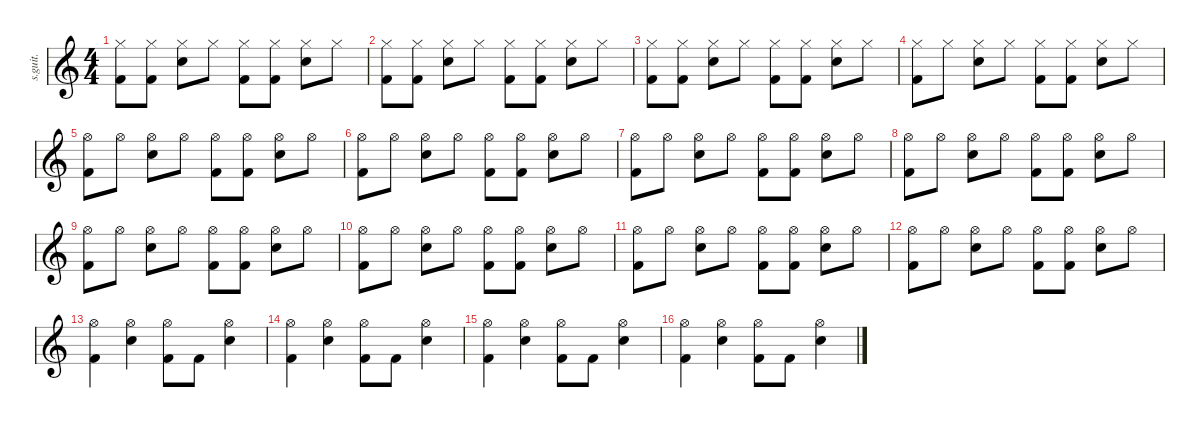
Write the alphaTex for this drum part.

\defaultSystemsLayout 4
\hideDynamics
\bracketExtendMode nobrackets
\track ("" "s.guit.") {instrument percussion}
\staff {score}
\articulation defaults
\ts (4 4)
\tempo (180 hide)
\clef g2
\ks c
("Kick (hit) 2" "Hi-Hat (closed)").8{dy f} ("Kick (hit) 2" "Hi-Hat (closed)").8 ("Snare (hit) 2" "Hi-Hat (closed)").8 "Hi-Hat (closed)".8 ("Kick (hit) 2" "Hi-Hat (closed)").8 ("Kick (hit) 2" "Hi-Hat (closed)").8 ("Snare (hit) 2" "Hi-Hat (closed)").8 "Hi-Hat (closed)".8 |
("Kick (hit) 2" "Hi-Hat (closed)").8 ("Kick (hit) 2" "Hi-Hat (closed)").8 ("Snare (hit) 2" "Hi-Hat (closed)").8 "Hi-Hat (closed)".8 ("Kick (hit) 2" "Hi-Hat (closed)").8 ("Kick (hit) 2" "Hi-Hat (closed)").8 ("Snare (hit) 2" "Hi-Hat (closed)").8 "Hi-Hat (closed)".8 |
("Kick (hit) 2" "Hi-Hat (closed)").8 ("Kick (hit) 2" "Hi-Hat (closed)").8 ("Snare (hit) 2" "Hi-Hat (closed)").8 "Hi-Hat (closed)".8 ("Kick (hit) 2" "Hi-Hat (closed)").8 ("Kick (hit) 2" "Hi-Hat (closed)").8 ("Snare (hit) 2" "Hi-Hat (closed)").8 "Hi-Hat (closed)".8 |
("Kick (hit) 2" "Hi-Hat (closed)").8 "Hi-Hat (closed)".8 ("Snare (hit) 2" "Hi-Hat (closed)").8 "Hi-Hat (closed)".8 ("Kick (hit) 2" "Hi-Hat (closed)").8 ("Kick (hit) 2" "Hi-Hat (closed)").8 ("Snare (hit) 2" "Hi-Hat (closed)").8 "Hi-Hat (closed)".8 |
("Kick (hit) 2" "Hi-Hat (open)").8 "Hi-Hat (open)".8 ("Snare (hit) 2" "Hi-Hat (open)").8 "Hi-Hat (open)".8 ("Kick (hit) 2" "Hi-Hat (open)").8 ("Kick (hit) 2" "Hi-Hat (open)").8 ("Snare (hit) 2" "Hi-Hat (open)").8 "Hi-Hat (open)".8 |
("Kick (hit) 2" "Hi-Hat (open)").8 "Hi-Hat (open)".8 ("Snare (hit) 2" "Hi-Hat (open)").8 "Hi-Hat (open)".8 ("Kick (hit) 2" "Hi-Hat (open)").8 ("Kick (hit) 2" "Hi-Hat (open)").8 ("Snare (hit) 2" "Hi-Hat (open)").8 "Hi-Hat (open)".8 |
("Kick (hit) 2" "Hi-Hat (open)").8 "Hi-Hat (open)".8 ("Snare (hit) 2" "Hi-Hat (open)").8 "Hi-Hat (open)".8 ("Kick (hit) 2" "Hi-Hat (open)").8 ("Kick (hit) 2" "Hi-Hat (open)").8 ("Snare (hit) 2" "Hi-Hat (open)").8 "Hi-Hat (open)".8 |
("Kick (hit) 2" "Hi-Hat (open)").8 "Hi-Hat (open)".8 ("Snare (hit) 2" "Hi-Hat (open)").8 "Hi-Hat (open)".8 ("Kick (hit) 2" "Hi-Hat (open)").8 ("Kick (hit) 2" "Hi-Hat (open)").8 ("Snare (hit) 2" "Hi-Hat (open)").8 "Hi-Hat (open)".8 |
("Kick (hit) 2" "Hi-Hat (open)").8 "Hi-Hat (open)".8 ("Snare (hit) 2" "Hi-Hat (open)").8 "Hi-Hat (open)".8 ("Kick (hit) 2" "Hi-Hat (open)").8 ("Kick (hit) 2" "Hi-Hat (open)").8 ("Snare (hit) 2" "Hi-Hat (open)").8 "Hi-Hat (open)".8 |
("Kick (hit) 2" "Hi-Hat (open)").8 "Hi-Hat (open)".8 ("Snare (hit) 2" "Hi-Hat (open)").8 "Hi-Hat (open)".8 ("Kick (hit) 2" "Hi-Hat (open)").8 ("Kick (hit) 2" "Hi-Hat (open)").8 ("Snare (hit) 2" "Hi-Hat (open)").8 "Hi-Hat (open)".8 |
("Kick (hit) 2" "Hi-Hat (open)").8 "Hi-Hat (open)".8 ("Snare (hit) 2" "Hi-Hat (open)").8 "Hi-Hat (open)".8 ("Kick (hit) 2" "Hi-Hat (open)").8 ("Kick (hit) 2" "Hi-Hat (open)").8 ("Snare (hit) 2" "Hi-Hat (open)").8 "Hi-Hat (open)".8 |
("Kick (hit) 2" "Hi-Hat (open)").8 "Hi-Hat (open)".8 ("Snare (hit) 2" "Hi-Hat (open)").8 "Hi-Hat (open)".8 ("Kick (hit) 2" "Hi-Hat (open)").8 ("Kick (hit) 2" "Hi-Hat (open)").8 ("Snare (hit) 2" "Hi-Hat (open)").8 "Hi-Hat (open)".8 |
("Kick (hit) 2" "Hi-Hat (open)").4 ("Snare (hit) 2" "Hi-Hat (open)").4 ("Kick (hit) 2" "Hi-Hat (open)").8 "Kick (hit) 2".8 ("Snare (hit) 2" "Hi-Hat (open)").4 |
("Kick (hit) 2" "Hi-Hat (open)").4 ("Snare (hit) 2" "Hi-Hat (open)").4 ("Kick (hit) 2" "Hi-Hat (open)").8 "Kick (hit) 2".8 ("Snare (hit) 2" "Hi-Hat (open)").4 |
("Kick (hit) 2" "Hi-Hat (open)").4 ("Snare (hit) 2" "Hi-Hat (open)").4 ("Kick (hit) 2" "Hi-Hat (open)").8 "Kick (hit) 2".8 ("Snare (hit) 2" "Hi-Hat (open)").4 |
("Kick (hit) 2" "Hi-Hat (open)").4 ("Snare (hit) 2" "Hi-Hat (open)").4 ("Kick (hit) 2" "Hi-Hat (open)").8 "Kick (hit) 2".8 ("Snare (hit) 2" "Hi-Hat (open)").4
